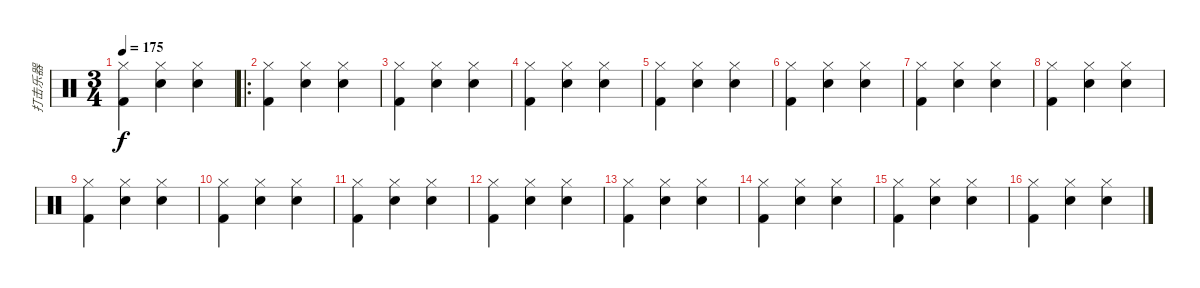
\track ("打击乐器" "打击乐器") {instrument percussion}
\staff {score}
\articulation defaults
\ts (3 4)
\tempo 175
\clef neutral
\ks c
("Kick (hit) 2" "Hi-Hat (closed)").4{dy f} ("Hi-Hat (closed)" "Electric Snare (hit)").4 ("Hi-Hat (closed)" "Electric Snare (hit)").4 |
\ro
("Kick (hit) 2" "Hi-Hat (closed)").4 ("Hi-Hat (closed)" "Electric Snare (hit)").4 ("Hi-Hat (closed)" "Electric Snare (hit)").4 |
("Kick (hit) 2" "Hi-Hat (closed)").4 ("Hi-Hat (closed)" "Electric Snare (hit)").4 ("Hi-Hat (closed)" "Electric Snare (hit)").4 |
("Kick (hit) 2" "Hi-Hat (closed)").4 ("Hi-Hat (closed)" "Electric Snare (hit)").4 ("Hi-Hat (closed)" "Electric Snare (hit)").4 |
("Kick (hit) 2" "Hi-Hat (closed)").4 ("Hi-Hat (closed)" "Electric Snare (hit)").4 ("Hi-Hat (closed)" "Electric Snare (hit)").4 |
("Kick (hit) 2" "Hi-Hat (closed)").4 ("Hi-Hat (closed)" "Electric Snare (hit)").4 ("Hi-Hat (closed)" "Electric Snare (hit)").4 |
("Kick (hit) 2" "Hi-Hat (closed)").4 ("Hi-Hat (closed)" "Electric Snare (hit)").4 ("Hi-Hat (closed)" "Electric Snare (hit)").4 |
("Kick (hit) 2" "Hi-Hat (closed)").4 ("Hi-Hat (closed)" "Electric Snare (hit)").4 ("Hi-Hat (closed)" "Electric Snare (hit)").4 |
("Kick (hit) 2" "Hi-Hat (closed)").4 ("Hi-Hat (closed)" "Electric Snare (hit)").4 ("Hi-Hat (closed)" "Electric Snare (hit)").4 |
("Kick (hit) 2" "Hi-Hat (closed)").4 ("Hi-Hat (closed)" "Electric Snare (hit)").4 ("Hi-Hat (closed)" "Electric Snare (hit)").4 |
("Kick (hit) 2" "Hi-Hat (closed)").4 ("Hi-Hat (closed)" "Electric Snare (hit)").4 ("Hi-Hat (closed)" "Electric Snare (hit)").4 |
("Kick (hit) 2" "Hi-Hat (closed)").4 ("Hi-Hat (closed)" "Electric Snare (hit)").4 ("Hi-Hat (closed)" "Electric Snare (hit)").4 |
("Kick (hit) 2" "Hi-Hat (closed)").4 ("Hi-Hat (closed)" "Electric Snare (hit)").4 ("Hi-Hat (closed)" "Electric Snare (hit)").4 |
("Kick (hit) 2" "Hi-Hat (closed)").4 ("Hi-Hat (closed)" "Electric Snare (hit)").4 ("Hi-Hat (closed)" "Electric Snare (hit)").4 |
("Kick (hit) 2" "Hi-Hat (closed)").4 ("Hi-Hat (closed)" "Electric Snare (hit)").4 ("Hi-Hat (closed)" "Electric Snare (hit)").4 |
("Kick (hit) 2" "Hi-Hat (closed)").4 ("Hi-Hat (closed)" "Electric Snare (hit)").4 ("Hi-Hat (closed)" "Electric Snare (hit)").4
